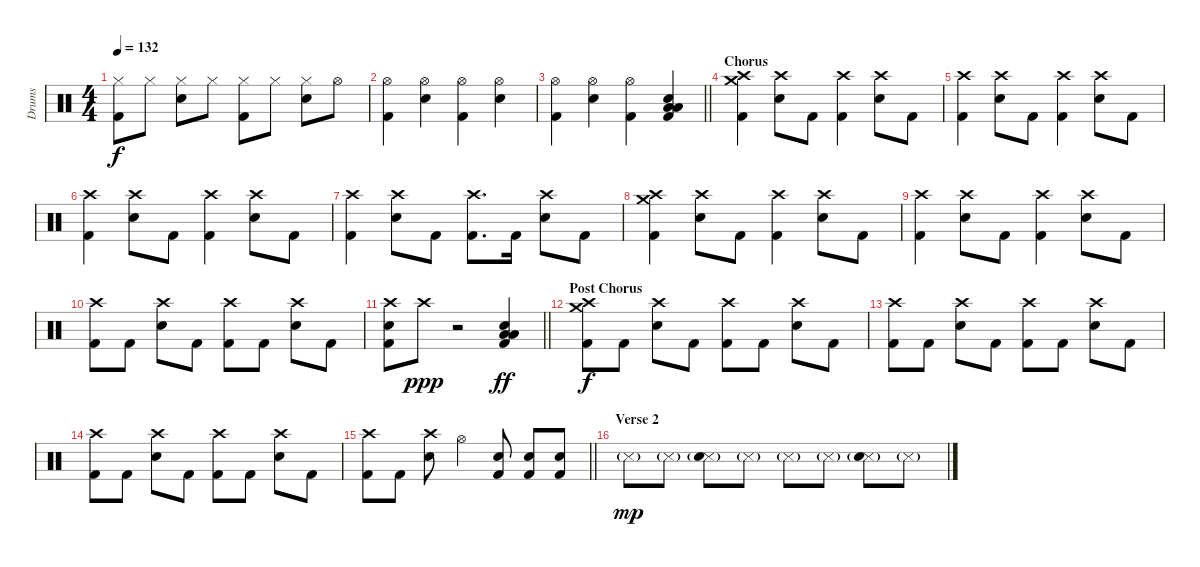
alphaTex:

\track ("Drums" "Drums") {instrument percussion}
\staff {score}
\articulation defaults
\ts (4 4)
\tempo 132
\clef neutral
\ks c
("Hi-Hat (closed)" "Kick (hit) 2").8{dy f} "Hi-Hat (closed)".8 ("Hi-Hat (closed)" "Electric Snare (hit)").8 "Hi-Hat (closed)".8 ("Hi-Hat (closed)" "Kick (hit) 2").8 "Hi-Hat (closed)".8 ("Hi-Hat (closed)" "Electric Snare (hit)").8 "Hi-Hat (open)".8 |
("Hi-Hat (open)" "Kick (hit) 2").4 ("Hi-Hat (open)" "Electric Snare (hit)").4 ("Hi-Hat (open)" "Kick (hit) 2").4 ("Hi-Hat (open)" "Electric Snare (hit)").4 |
\barLineRight lightlight
("Hi-Hat (open)" "Kick (hit) 2").4 ("Hi-Hat (open)" "Electric Snare (hit)").4 ("Hi-Hat (open)" "Kick (hit) 2").4 ("Electric Snare (hit)" "Low Floor Tom (hit)" "Low Floor Tom (hit)" "Kick (hit) 2").4 |
\section ("" "Chorus")
("Crash medium (hit)" "Crash high (hit)" "Kick (hit) 2").4 ("Crash high (hit)" "Electric Snare (hit)").8 "Kick (hit) 2".8 ("Crash high (hit)" "Kick (hit) 2").4 ("Crash high (hit)" "Electric Snare (hit)").8 "Kick (hit) 2".8 |
("Crash high (hit)" "Kick (hit) 2").4 ("Crash high (hit)" "Electric Snare (hit)").8 "Kick (hit) 2".8 ("Crash high (hit)" "Kick (hit) 2").4 ("Crash high (hit)" "Electric Snare (hit)").8 "Kick (hit) 2".8 |
("Crash high (hit)" "Kick (hit) 2").4 ("Crash high (hit)" "Electric Snare (hit)").8 "Kick (hit) 2".8 ("Crash high (hit)" "Kick (hit) 2").4 ("Crash high (hit)" "Electric Snare (hit)").8 "Kick (hit) 2".8 |
("Crash high (hit)" "Kick (hit) 2").4 ("Crash high (hit)" "Electric Snare (hit)").8 "Kick (hit) 2".8 ("Crash high (hit)" "Kick (hit) 2").8{d} "Kick (hit) 2".16 ("Crash high (hit)" "Electric Snare (hit)").8 "Kick (hit) 2".8 |
("Crash medium (hit)" "Crash high (hit)" "Kick (hit) 2").4 ("Crash high (hit)" "Electric Snare (hit)").8 "Kick (hit) 2".8 ("Crash high (hit)" "Kick (hit) 2").4 ("Crash high (hit)" "Electric Snare (hit)").8 "Kick (hit) 2".8 |
("Crash high (hit)" "Kick (hit) 2").4 ("Crash high (hit)" "Electric Snare (hit)").8 "Kick (hit) 2".8 ("Crash high (hit)" "Kick (hit) 2").4 ("Crash high (hit)" "Electric Snare (hit)").8 "Kick (hit) 2".8 |
("Crash high (hit)" "Kick (hit) 2").8 "Kick (hit) 2".8 ("Crash high (hit)" "Electric Snare (hit)").8 "Kick (hit) 2".8 ("Crash high (hit)" "Kick (hit) 2").8 "Kick (hit) 2".8 ("Crash high (hit)" "Electric Snare (hit)").8 "Kick (hit) 2".8 |
\barLineRight lightlight
("Crash high (hit)" "Electric Snare (hit)" "Kick (hit) 2").8 "Crash high (hit)".8{dy ppp} r.2 ("Electric Snare (hit)" "Low Floor Tom (hit)" "Low Floor Tom (hit)" "Kick (hit) 2").4{dy ff} |
\section ("" "Post Chorus")
("Crash medium (hit)" "Crash high (hit)" "Kick (hit) 2").8{dy f} "Kick (hit) 2".8 ("Crash high (hit)" "Electric Snare (hit)").8 "Kick (hit) 2".8 ("Crash high (hit)" "Kick (hit) 2").8 "Kick (hit) 2".8 ("Crash high (hit)" "Electric Snare (hit)").8 "Kick (hit) 2".8 |
("Crash high (hit)" "Kick (hit) 2").8 "Kick (hit) 2".8 ("Crash high (hit)" "Electric Snare (hit)").8 "Kick (hit) 2".8 ("Crash high (hit)" "Kick (hit) 2").8 "Kick (hit) 2".8 ("Crash high (hit)" "Electric Snare (hit)").8 "Kick (hit) 2".8 |
("Crash high (hit)" "Kick (hit) 2").8 "Kick (hit) 2".8 ("Crash high (hit)" "Electric Snare (hit)").8 "Kick (hit) 2".8 ("Crash high (hit)" "Kick (hit) 2").8 "Kick (hit) 2".8 ("Crash high (hit)" "Electric Snare (hit)").8 "Kick (hit) 2".8 |
\barLineRight lightlight
("Crash high (hit)" "Kick (hit) 2").8 "Kick (hit) 2".8 ("Crash high (hit)" "Electric Snare (hit)").8 "Hi-Hat (open)".4 ("Electric Snare (hit)" "Kick (hit) 2").8 ("Electric Snare (hit)" "Kick (hit) 2").8 ("Electric Snare (hit)" "Kick (hit) 2").8 |
\section ("" "Verse 2")
"Snare (side stick) 3"{g}.8{dy mp} "Snare (side stick) 3"{g}.8 ("Snare (side stick) 3"{g} "Electric Snare (hit)").8 "Snare (side stick) 3"{g}.8 "Snare (side stick) 3"{g}.8 "Snare (side stick) 3"{g}.8 ("Snare (side stick) 3"{g} "Electric Snare (hit)").8 "Snare (side stick) 3"{g}.8
